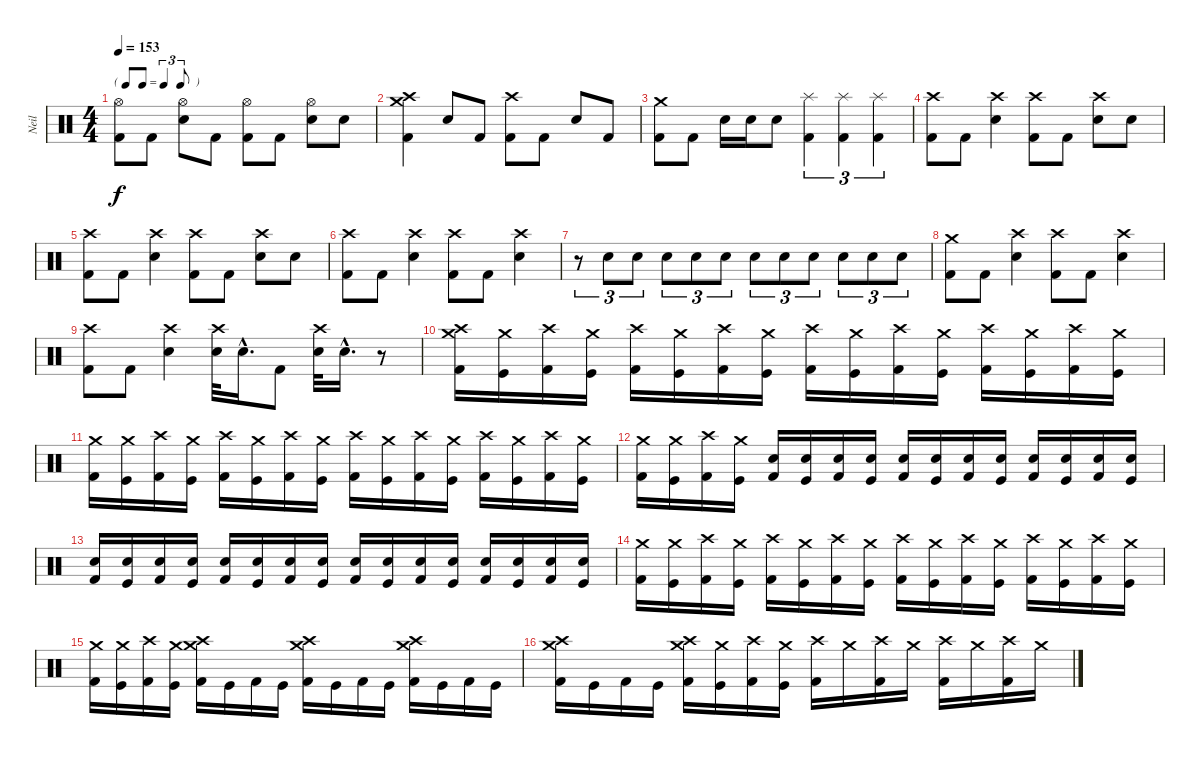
\track ("Neil" "Neil") {instrument percussion}
\staff {score}
\articulation defaults
\ts (4 4)
\tf triplet8th
\tempo 153
\clef neutral
\ks c
("Kick (hit) 2" "Hi-Hat (open)").8{dy f} "Kick (hit) 2".8 ("Electric Snare (hit)" "Hi-Hat (open)").8 "Kick (hit) 2".8 ("Kick (hit) 2" "Hi-Hat (open)").8 "Kick (hit) 2".8 ("Electric Snare (hit)" "Hi-Hat (open)").8 "Electric Snare (hit)".8 |
("Kick (hit) 2" "Crash medium (hit)" "Crash high (hit)").4 "Electric Snare (hit)".8 "Kick (hit) 2".8 ("Kick (hit) 2" "Crash high (hit)").8 "Kick (hit) 2".8 "Electric Snare (hit)".8 "Kick (hit) 2".8 |
("Kick (hit) 2" "Crash medium (hit)").8 "Kick (hit) 2".8 "Electric Snare (hit)".16 "Electric Snare (hit)".16 "Electric Snare (hit)".8 ("Kick (hit) 2" "Splash (hit)").4{tu (3 2)} ("Kick (hit) 2" "Splash (hit)").4{tu (3 2)} ("Kick (hit) 2" "Splash (hit)").4{tu (3 2)} |
("Kick (hit) 2" "Crash high (hit)").8 "Kick (hit) 2".8 ("Electric Snare (hit)" "Crash high (hit)").4 ("Kick (hit) 2" "Crash high (hit)").8 "Kick (hit) 2".8 ("Electric Snare (hit)" "Crash high (hit)").8 "Electric Snare (hit)".8 |
("Kick (hit) 2" "Crash high (hit)").8 "Kick (hit) 2".8 ("Electric Snare (hit)" "Crash high (hit)").4 ("Kick (hit) 2" "Crash high (hit)").8 "Kick (hit) 2".8 ("Electric Snare (hit)" "Crash high (hit)").8 "Electric Snare (hit)".8 |
("Kick (hit) 2" "Crash high (hit)").8 "Kick (hit) 2".8 ("Electric Snare (hit)" "Crash high (hit)").4 ("Kick (hit) 2" "Crash high (hit)").8 "Kick (hit) 2".8 ("Electric Snare (hit)" "Crash high (hit)").4 |
r.8{tu (3 2)} "Electric Snare (hit)".8{tu (3 2)} "Electric Snare (hit)".8{tu (3 2)} "Electric Snare (hit)".8{tu (3 2)} "Electric Snare (hit)".8{tu (3 2)} "Electric Snare (hit)".8{tu (3 2)} "Electric Snare (hit)".8{tu (3 2)} "Electric Snare (hit)".8{tu (3 2)} "Electric Snare (hit)".8{tu (3 2)} "Electric Snare (hit)".8{tu (3 2)} "Electric Snare (hit)".8{tu (3 2)} "Electric Snare (hit)".8{tu (3 2)} |
("Kick (hit) 2" "Crash medium (hit)").8 "Kick (hit) 2".8 ("Electric Snare (hit)" "Crash high (hit)").4 ("Kick (hit) 2" "Crash high (hit)").8 "Kick (hit) 2".8 ("Electric Snare (hit)" "Crash high (hit)").4 |
("Kick (hit) 2" "Crash high (hit)").8 "Kick (hit) 2".8 ("Electric Snare (hit)" "Crash high (hit)").4 ("Electric Snare (hit)" "Crash high (hit)").32 "Electric Snare (hit)"{hac}.16{d} "Kick (hit) 2".8 ("Electric Snare (hit)" "Crash high (hit)").32 "Electric Snare (hit)"{hac}.16{d} r.8 |
("Kick (hit) 2" "Crash medium (hit)" "Crash high (hit)").16 ("Kick (hit)" "Crash medium (hit)").16 ("Kick (hit) 2" "Crash high (hit)").16 ("Kick (hit)" "Crash medium (hit)").16 ("Kick (hit) 2" "Crash high (hit)").16 ("Kick (hit)" "Crash medium (hit)").16 ("Kick (hit) 2" "Crash high (hit)").16 ("Kick (hit)" "Crash medium (hit)").16 ("Kick (hit) 2" "Crash high (hit)").16 ("Kick (hit)" "Crash medium (hit)").16 ("Kick (hit) 2" "Crash high (hit)").16 ("Kick (hit)" "Crash medium (hit)").16 ("Kick (hit) 2" "Crash high (hit)").16 ("Kick (hit)" "Crash medium (hit)").16 ("Kick (hit) 2" "Crash high (hit)").16 ("Kick (hit)" "Crash medium (hit)").16 |
("Kick (hit) 2" "Crash medium (hit)").16 ("Kick (hit)" "Crash medium (hit)").16 ("Kick (hit) 2" "Crash high (hit)").16 ("Kick (hit)" "Crash medium (hit)").16 ("Kick (hit) 2" "Crash high (hit)").16 ("Kick (hit)" "Crash medium (hit)").16 ("Kick (hit) 2" "Crash high (hit)").16 ("Kick (hit)" "Crash medium (hit)").16 ("Kick (hit) 2" "Crash high (hit)").16 ("Kick (hit)" "Crash medium (hit)").16 ("Kick (hit) 2" "Crash high (hit)").16 ("Kick (hit)" "Crash medium (hit)").16 ("Kick (hit) 2" "Crash high (hit)").16 ("Kick (hit)" "Crash medium (hit)").16 ("Kick (hit) 2" "Crash high (hit)").16 ("Kick (hit)" "Crash medium (hit)").16 |
("Kick (hit) 2" "Crash medium (hit)").16 ("Kick (hit)" "Crash medium (hit)").16 ("Kick (hit) 2" "Crash high (hit)").16 ("Kick (hit)" "Crash medium (hit)").16 ("Kick (hit) 2" "Electric Snare (hit)").16 ("Kick (hit)" "Electric Snare (hit)").16 ("Kick (hit) 2" "Electric Snare (hit)").16 ("Kick (hit)" "Electric Snare (hit)").16 ("Kick (hit) 2" "Electric Snare (hit)").16 ("Kick (hit)" "Electric Snare (hit)").16 ("Kick (hit) 2" "Electric Snare (hit)").16 ("Kick (hit)" "Electric Snare (hit)").16 ("Kick (hit) 2" "Electric Snare (hit)").16 ("Kick (hit)" "Electric Snare (hit)").16 ("Kick (hit) 2" "Electric Snare (hit)").16 ("Kick (hit)" "Electric Snare (hit)").16 |
("Kick (hit) 2" "Electric Snare (hit)").16 ("Kick (hit)" "Electric Snare (hit)").16 ("Kick (hit) 2" "Electric Snare (hit)").16 ("Kick (hit)" "Electric Snare (hit)").16 ("Kick (hit) 2" "Electric Snare (hit)").16 ("Kick (hit)" "Electric Snare (hit)").16 ("Kick (hit) 2" "Electric Snare (hit)").16 ("Kick (hit)" "Electric Snare (hit)").16 ("Kick (hit) 2" "Electric Snare (hit)").16 ("Kick (hit)" "Electric Snare (hit)").16 ("Kick (hit) 2" "Electric Snare (hit)").16 ("Kick (hit)" "Electric Snare (hit)").16 ("Kick (hit) 2" "Electric Snare (hit)").16 ("Kick (hit)" "Electric Snare (hit)").16 ("Kick (hit) 2" "Electric Snare (hit)").16 ("Kick (hit)" "Electric Snare (hit)").16 |
("Kick (hit) 2" "Crash medium (hit)").16 ("Kick (hit)" "Crash medium (hit)").16 ("Kick (hit) 2" "Crash high (hit)").16 ("Kick (hit)" "Crash medium (hit)").16 ("Kick (hit) 2" "Crash high (hit)").16 ("Kick (hit)" "Crash medium (hit)").16 ("Kick (hit) 2" "Crash high (hit)").16 ("Kick (hit)" "Crash medium (hit)").16 ("Kick (hit) 2" "Crash high (hit)").16 ("Kick (hit)" "Crash medium (hit)").16 ("Kick (hit) 2" "Crash high (hit)").16 ("Kick (hit)" "Crash medium (hit)").16 ("Kick (hit) 2" "Crash high (hit)").16 ("Kick (hit)" "Crash medium (hit)").16 ("Kick (hit) 2" "Crash high (hit)").16 ("Kick (hit)" "Crash medium (hit)").16 |
("Kick (hit) 2" "Crash medium (hit)").16 ("Kick (hit)" "Crash medium (hit)").16 ("Kick (hit) 2" "Crash high (hit)").16 ("Kick (hit)" "Crash medium (hit)").16 ("Kick (hit) 2" "Crash high (hit)" "Crash medium (hit)").16 "Kick (hit)".16 "Kick (hit) 2".16 "Kick (hit)".16 ("Kick (hit) 2" "Crash high (hit)" "Crash medium (hit)").16 "Kick (hit)".16 "Kick (hit) 2".16 "Kick (hit)".16 ("Kick (hit) 2" "Crash high (hit)" "Crash medium (hit)").16 "Kick (hit)".16 "Kick (hit) 2".16 "Kick (hit)".16 |
("Kick (hit) 2" "Crash high (hit)" "Crash medium (hit)").16 "Kick (hit)".16 "Kick (hit) 2".16 "Kick (hit)".16 ("Kick (hit) 2" "Crash high (hit)" "Crash medium (hit)").16 ("Kick (hit)" "Crash medium (hit)").16 ("Kick (hit) 2" "Crash high (hit)").16 ("Kick (hit)" "Crash medium (hit)").16 ("Kick (hit) 2" "Crash high (hit)").16 "Crash medium (hit)".16 ("Kick (hit) 2" "Crash high (hit)").16 "Crash medium (hit)".16 ("Kick (hit) 2" "Crash high (hit)").16 "Crash medium (hit)".16 ("Kick (hit) 2" "Crash high (hit)").16 "Crash medium (hit)".16
